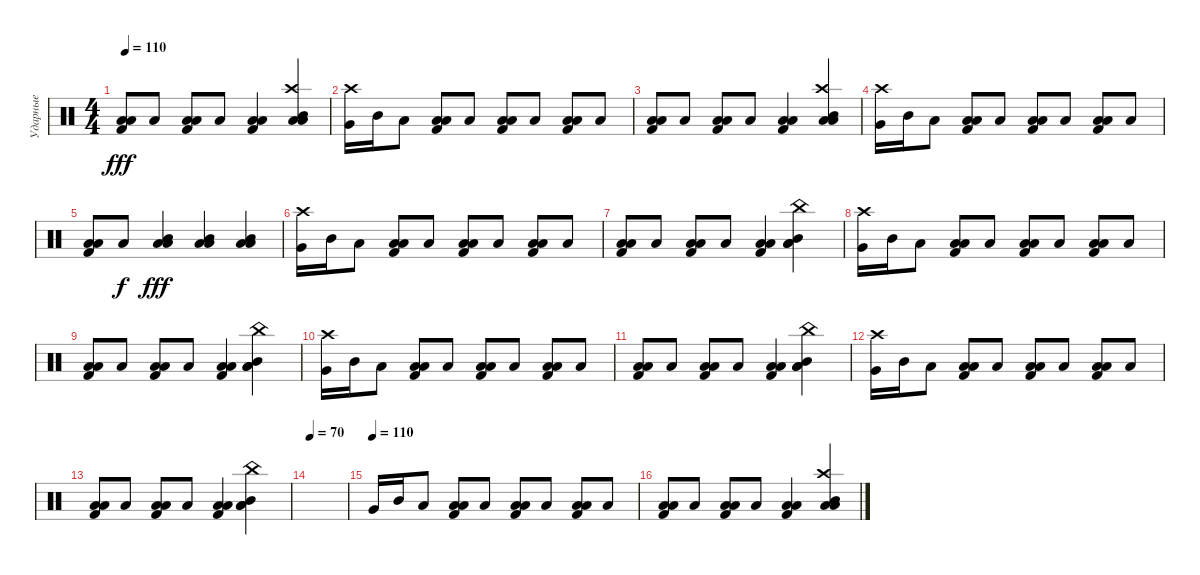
\track ("Ударные" "Ударные") {instrument percussion}
\staff {score}
\articulation defaults
\ts (4 4)
\tempo 110
\clef neutral
\ks c
("Low Tom (hit)" "Kick (hit) 2" "Low Floor Tom (hit)").8{dy fff} "Low Floor Tom (hit)".8 ("Low Tom (hit)" "Kick (hit) 2" "Low Floor Tom (hit)").8 "Low Floor Tom (hit)".8 ("Low Tom (hit)" "Kick (hit) 2" "Low Floor Tom (hit)").4 ("Crash high (hit)" "Low Tom (hit)" "Mid Tom (hit)" "Low Floor Tom (hit)").4 |
("Crash high (hit)" "Very Low Tom (hit)").16 "Mid Tom (hit)".16 "Low Floor Tom (hit)".8 ("Low Tom (hit)" "Kick (hit) 2" "Low Floor Tom (hit)").8 "Low Floor Tom (hit)".8 ("Low Tom (hit)" "Kick (hit) 2" "Low Floor Tom (hit)").8 "Low Floor Tom (hit)".8 ("Low Tom (hit)" "Kick (hit) 2" "Low Floor Tom (hit)").8 "Low Floor Tom (hit)".8 |
("Low Tom (hit)" "Kick (hit) 2" "Low Floor Tom (hit)").8 "Low Floor Tom (hit)".8 ("Low Tom (hit)" "Kick (hit) 2" "Low Floor Tom (hit)").8 "Low Floor Tom (hit)".8 ("Low Tom (hit)" "Kick (hit) 2" "Low Floor Tom (hit)").4 ("Crash high (hit)" "Low Tom (hit)" "Mid Tom (hit)" "Low Floor Tom (hit)").4 |
("Crash high (hit)" "Very Low Tom (hit)").16 "Mid Tom (hit)".16 "Low Floor Tom (hit)".8 ("Low Tom (hit)" "Kick (hit) 2" "Low Floor Tom (hit)").8 "Low Floor Tom (hit)".8 ("Low Tom (hit)" "Kick (hit) 2" "Low Floor Tom (hit)").8 "Low Floor Tom (hit)".8 ("Low Tom (hit)" "Kick (hit) 2" "Low Floor Tom (hit)").8 "Low Floor Tom (hit)".8 |
("Low Tom (hit)" "Kick (hit) 2" "Low Floor Tom (hit)").8 "Low Floor Tom (hit)".8{dy f} ("Low Tom (hit)" "Mid Tom (hit)" "Low Floor Tom (hit)").4{dy fff} ("Low Tom (hit)" "Mid Tom (hit)" "Low Floor Tom (hit)").4 ("Low Tom (hit)" "Mid Tom (hit)" "Low Floor Tom (hit)").4 |
("Crash high (hit)" "Very Low Tom (hit)").16 "Mid Tom (hit)".16 "Low Floor Tom (hit)".8 ("Low Tom (hit)" "Kick (hit) 2" "Low Floor Tom (hit)").8 "Low Floor Tom (hit)".8 ("Low Tom (hit)" "Kick (hit) 2" "Low Floor Tom (hit)").8 "Low Floor Tom (hit)".8 ("Low Tom (hit)" "Kick (hit) 2" "Low Floor Tom (hit)").8 "Low Floor Tom (hit)".8 |
("Low Tom (hit)" "Kick (hit) 2" "Low Floor Tom (hit)").8 "Low Floor Tom (hit)".8 ("Low Tom (hit)" "Kick (hit) 2" "Low Floor Tom (hit)").8 "Low Floor Tom (hit)".8 ("Low Tom (hit)" "Kick (hit) 2" "Low Floor Tom (hit)").4 ("China (hit)" "Low Tom (hit)" "Mid Tom (hit)" "Low Floor Tom (hit)").4 |
("Crash high (hit)" "Very Low Tom (hit)").16 "Mid Tom (hit)".16 "Low Floor Tom (hit)".8 ("Low Tom (hit)" "Kick (hit) 2" "Low Floor Tom (hit)").8 "Low Floor Tom (hit)".8 ("Low Tom (hit)" "Kick (hit) 2" "Low Floor Tom (hit)").8 "Low Floor Tom (hit)".8 ("Low Tom (hit)" "Kick (hit) 2" "Low Floor Tom (hit)").8 "Low Floor Tom (hit)".8 |
("Low Tom (hit)" "Kick (hit) 2" "Low Floor Tom (hit)").8 "Low Floor Tom (hit)".8 ("Low Tom (hit)" "Kick (hit) 2" "Low Floor Tom (hit)").8 "Low Floor Tom (hit)".8 ("Low Tom (hit)" "Kick (hit) 2" "Low Floor Tom (hit)").4 ("China (hit)" "Low Tom (hit)" "Mid Tom (hit)" "Low Floor Tom (hit)").4 |
("Crash high (hit)" "Very Low Tom (hit)").16 "Mid Tom (hit)".16 "Low Floor Tom (hit)".8 ("Low Tom (hit)" "Kick (hit) 2" "Low Floor Tom (hit)").8 "Low Floor Tom (hit)".8 ("Low Tom (hit)" "Kick (hit) 2" "Low Floor Tom (hit)").8 "Low Floor Tom (hit)".8 ("Low Tom (hit)" "Kick (hit) 2" "Low Floor Tom (hit)").8 "Low Floor Tom (hit)".8 |
("Low Tom (hit)" "Kick (hit) 2" "Low Floor Tom (hit)").8 "Low Floor Tom (hit)".8 ("Low Tom (hit)" "Kick (hit) 2" "Low Floor Tom (hit)").8 "Low Floor Tom (hit)".8 ("Low Tom (hit)" "Kick (hit) 2" "Low Floor Tom (hit)").4 ("China (hit)" "Low Tom (hit)" "Mid Tom (hit)" "Low Floor Tom (hit)").4 |
("Crash high (hit)" "Very Low Tom (hit)").16 "Mid Tom (hit)".16 "Low Floor Tom (hit)".8 ("Low Tom (hit)" "Kick (hit) 2" "Low Floor Tom (hit)").8 "Low Floor Tom (hit)".8 ("Low Tom (hit)" "Kick (hit) 2" "Low Floor Tom (hit)").8 "Low Floor Tom (hit)".8 ("Low Tom (hit)" "Kick (hit) 2" "Low Floor Tom (hit)").8 "Low Floor Tom (hit)".8 |
("Low Tom (hit)" "Kick (hit) 2" "Low Floor Tom (hit)").8 "Low Floor Tom (hit)".8 ("Low Tom (hit)" "Kick (hit) 2" "Low Floor Tom (hit)").8 "Low Floor Tom (hit)".8 ("Low Tom (hit)" "Kick (hit) 2" "Low Floor Tom (hit)").4 ("China (hit)" "Low Tom (hit)" "Mid Tom (hit)" "Low Floor Tom (hit)").4 |
\tempo 70
|
\tempo (110)
"Very Low Tom (hit)".16 "Mid Tom (hit)".16 "Low Floor Tom (hit)".8 ("Low Tom (hit)" "Kick (hit) 2" "Low Floor Tom (hit)").8 "Low Floor Tom (hit)".8 ("Low Tom (hit)" "Kick (hit) 2" "Low Floor Tom (hit)").8 "Low Floor Tom (hit)".8 ("Low Tom (hit)" "Kick (hit) 2" "Low Floor Tom (hit)").8 "Low Floor Tom (hit)".8 |
("Low Tom (hit)" "Kick (hit) 2" "Low Floor Tom (hit)").8 "Low Floor Tom (hit)".8 ("Low Tom (hit)" "Kick (hit) 2" "Low Floor Tom (hit)").8 "Low Floor Tom (hit)".8 ("Low Tom (hit)" "Kick (hit) 2" "Low Floor Tom (hit)").4 ("Crash high (hit)" "Low Tom (hit)" "Mid Tom (hit)" "Low Floor Tom (hit)").4
